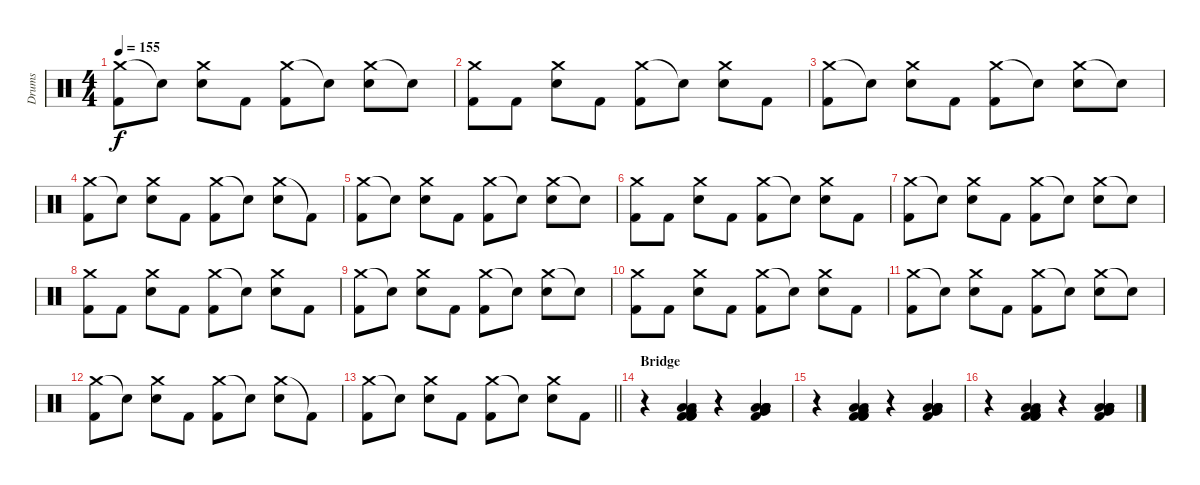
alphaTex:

\track ("Drums" "Drums") {instrument percussion}
\staff {score}
\articulation defaults
\ts (4 4)
\tempo 155
\clef neutral
\ks c
("Crash medium (hit)" "Kick (hit) 2").8{dy f} "Snare (hit)"{t}.8 ("Crash medium (hit)" "Electric Snare (hit)").8 "Kick (hit) 2".8 ("Crash medium (hit)" "Kick (hit) 2").8 "Snare (hit)"{t}.8 ("Crash medium (hit)" "Electric Snare (hit)").8 "Snare (hit)"{t}.8 |
("Crash medium (hit)" "Kick (hit) 2").8 "Kick (hit) 2".8 ("Crash medium (hit)" "Electric Snare (hit)").8 "Kick (hit) 2".8 ("Crash medium (hit)" "Kick (hit) 2").8 "Snare (hit)"{t}.8 ("Crash medium (hit)" "Electric Snare (hit)").8 "Kick (hit) 2".8 |
("Crash medium (hit)" "Kick (hit) 2").8 "Snare (hit)"{t}.8 ("Crash medium (hit)" "Electric Snare (hit)").8 "Kick (hit) 2".8 ("Crash medium (hit)" "Kick (hit) 2").8 "Snare (hit)"{t}.8 ("Crash medium (hit)" "Electric Snare (hit)").8 "Snare (hit)"{t}.8 |
("Crash medium (hit)" "Kick (hit) 2").8 "Snare (hit)"{t}.8 ("Crash medium (hit)" "Electric Snare (hit)").8 "Kick (hit) 2".8 ("Crash medium (hit)" "Kick (hit) 2").8 "Snare (hit)"{t}.8 ("Crash medium (hit)" "Electric Snare (hit)").8 "Kick (hit) 2"{t}.8 |
("Crash medium (hit)" "Kick (hit) 2").8 "Electric Snare (hit)"{t}.8 ("Crash medium (hit)" "Electric Snare (hit)").8 "Kick (hit) 2".8 ("Crash medium (hit)" "Kick (hit) 2").8 "Electric Snare (hit)"{t}.8 ("Crash medium (hit)" "Electric Snare (hit)").8 "Snare (hit)"{t}.8 |
("Crash medium (hit)" "Kick (hit) 2").8 "Kick (hit) 2".8 ("Crash medium (hit)" "Electric Snare (hit)").8 "Kick (hit) 2".8 ("Crash medium (hit)" "Kick (hit) 2").8 "Snare (hit)"{t}.8 ("Crash medium (hit)" "Electric Snare (hit)").8 "Kick (hit) 2".8 |
("Crash medium (hit)" "Kick (hit) 2").8 "Snare (hit)"{t}.8 ("Crash medium (hit)" "Electric Snare (hit)").8 "Kick (hit) 2".8 ("Crash medium (hit)" "Kick (hit) 2").8 "Snare (hit)"{t}.8 ("Crash medium (hit)" "Electric Snare (hit)").8 "Snare (hit)"{t}.8 |
("Crash medium (hit)" "Kick (hit) 2").8 "Kick (hit) 2".8 ("Crash medium (hit)" "Electric Snare (hit)").8 "Kick (hit) 2".8 ("Crash medium (hit)" "Kick (hit) 2").8 "Snare (hit)"{t}.8 ("Crash medium (hit)" "Electric Snare (hit)").8 "Kick (hit) 2".8 |
("Crash medium (hit)" "Kick (hit) 2").8 "Snare (hit)"{t}.8 ("Crash medium (hit)" "Electric Snare (hit)").8 "Kick (hit) 2".8 ("Crash medium (hit)" "Kick (hit) 2").8 "Snare (hit)"{t}.8 ("Crash medium (hit)" "Electric Snare (hit)").8 "Snare (hit)"{t}.8 |
("Crash medium (hit)" "Kick (hit) 2").8 "Kick (hit) 2".8 ("Crash medium (hit)" "Electric Snare (hit)").8 "Kick (hit) 2".8 ("Crash medium (hit)" "Kick (hit) 2").8 "Snare (hit)"{t}.8 ("Crash medium (hit)" "Electric Snare (hit)").8 "Kick (hit) 2".8 |
("Crash medium (hit)" "Kick (hit) 2").8 "Snare (hit)"{t}.8 ("Crash medium (hit)" "Electric Snare (hit)").8 "Kick (hit) 2".8 ("Crash medium (hit)" "Kick (hit) 2").8 "Snare (hit)"{t}.8 ("Crash medium (hit)" "Electric Snare (hit)").8 "Snare (hit)"{t}.8 |
("Crash medium (hit)" "Kick (hit) 2").8 "Snare (hit)"{t}.8 ("Crash medium (hit)" "Electric Snare (hit)").8 "Kick (hit) 2".8 ("Crash medium (hit)" "Kick (hit) 2").8 "Snare (hit)"{t}.8 ("Crash medium (hit)" "Electric Snare (hit)").8 "Kick (hit) 2"{t}.8 |
\barLineRight lightlight
("Crash medium (hit)" "Kick (hit) 2").8 "Snare (hit)"{t}.8 ("Crash medium (hit)" "Electric Snare (hit)").8 "Kick (hit) 2".8 ("Crash medium (hit)" "Kick (hit) 2").8 "Snare (hit)"{t}.8 ("Crash medium (hit)" "Electric Snare (hit)").8 "Kick (hit) 2".8 |
\section ("" "Bridge")
r.4 ("Kick (hit) 2" "Kick (hit) 2" "Kick (hit) 2" "Low Tom (hit)" "Very Low Tom (hit)" "Low Floor Tom (hit)").4 r.4 ("Low Floor Tom (hit)" "Low Floor Tom (hit)" "Kick (hit) 2" "Low Tom (hit)" "Very Low Tom (hit)" "Low Floor Tom (hit)").4 |
r.4 ("Kick (hit) 2" "Kick (hit) 2" "Kick (hit) 2" "Low Tom (hit)" "Very Low Tom (hit)" "Low Floor Tom (hit)").4 r.4 ("Low Floor Tom (hit)" "Low Floor Tom (hit)" "Kick (hit) 2" "Low Tom (hit)" "Very Low Tom (hit)" "Low Floor Tom (hit)").4 |
r.4 ("Kick (hit) 2" "Kick (hit) 2" "Kick (hit) 2" "Low Tom (hit)" "Very Low Tom (hit)" "Low Floor Tom (hit)").4 r.4 ("Low Floor Tom (hit)" "Low Floor Tom (hit)" "Kick (hit) 2" "Low Tom (hit)" "Very Low Tom (hit)" "Low Floor Tom (hit)").4
